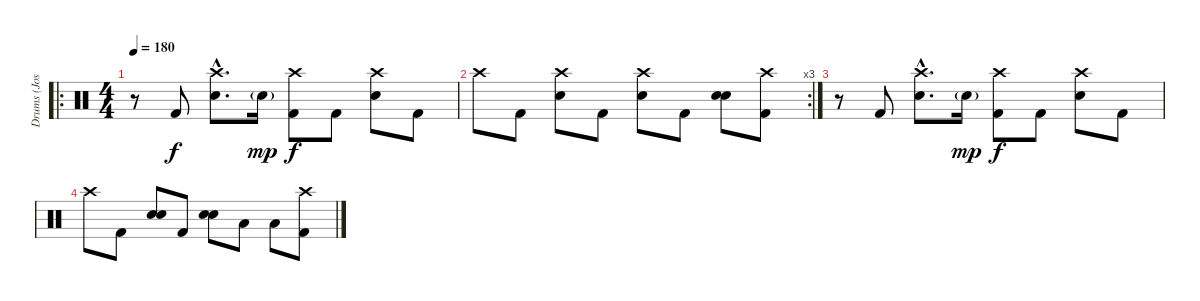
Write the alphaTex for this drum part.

\track ("Drums (Jose Pasilas II)" "Drums (Jos") {instrument percussion}
\staff {score}
\articulation defaults
\ro
\ts (4 4)
\tempo 180
\clef neutral
\ks c
r.8{dy f} "Kick (hit) 2".8 ("Crash high (hit)"{hac} "Snare (hit) 2"{hac}).8{d} "Snare (hit) 2"{g}.16{dy mp} ("Crash high (hit)" "Kick (hit) 2").8{dy f} "Kick (hit) 2".8 ("Crash high (hit)" "Snare (hit) 2").8 "Kick (hit) 2".8 |
\rc 3 "Crash high (hit)".8 "Kick (hit) 2".8
("Snare (hit) 2" "Crash high (hit)").8 "Kick (hit) 2".8 ("Snare (hit) 2" "Crash high (hit)").8 "Kick (hit) 2".8 ("Snare (hit) 2" "Snare (hit) 2").8{bu 240} ("Kick (hit) 2" "Crash high (hit)").8 |
r.8 "Kick (hit) 2".8 ("Crash high (hit)"{hac} "Snare (hit) 2"{hac}).8{d} "Snare (hit) 2"{g}.16{dy mp} ("Crash high (hit)" "Kick (hit) 2").8{dy f} "Kick (hit) 2".8 ("Crash high (hit)" "Snare (hit) 2").8 "Kick (hit) 2".8 |
"Crash high (hit)".8 "Kick (hit) 2".8 ("Snare (hit) 2" "Snare (hit) 2").8{bu 240} "Kick (hit) 2".8 ("Snare (hit) 2" "Snare (hit) 2").8{bu 240} "Low Tom (hit)".8 "Low Floor Tom (hit)".8 ("Crash high (hit)" "Kick (hit) 2").8
